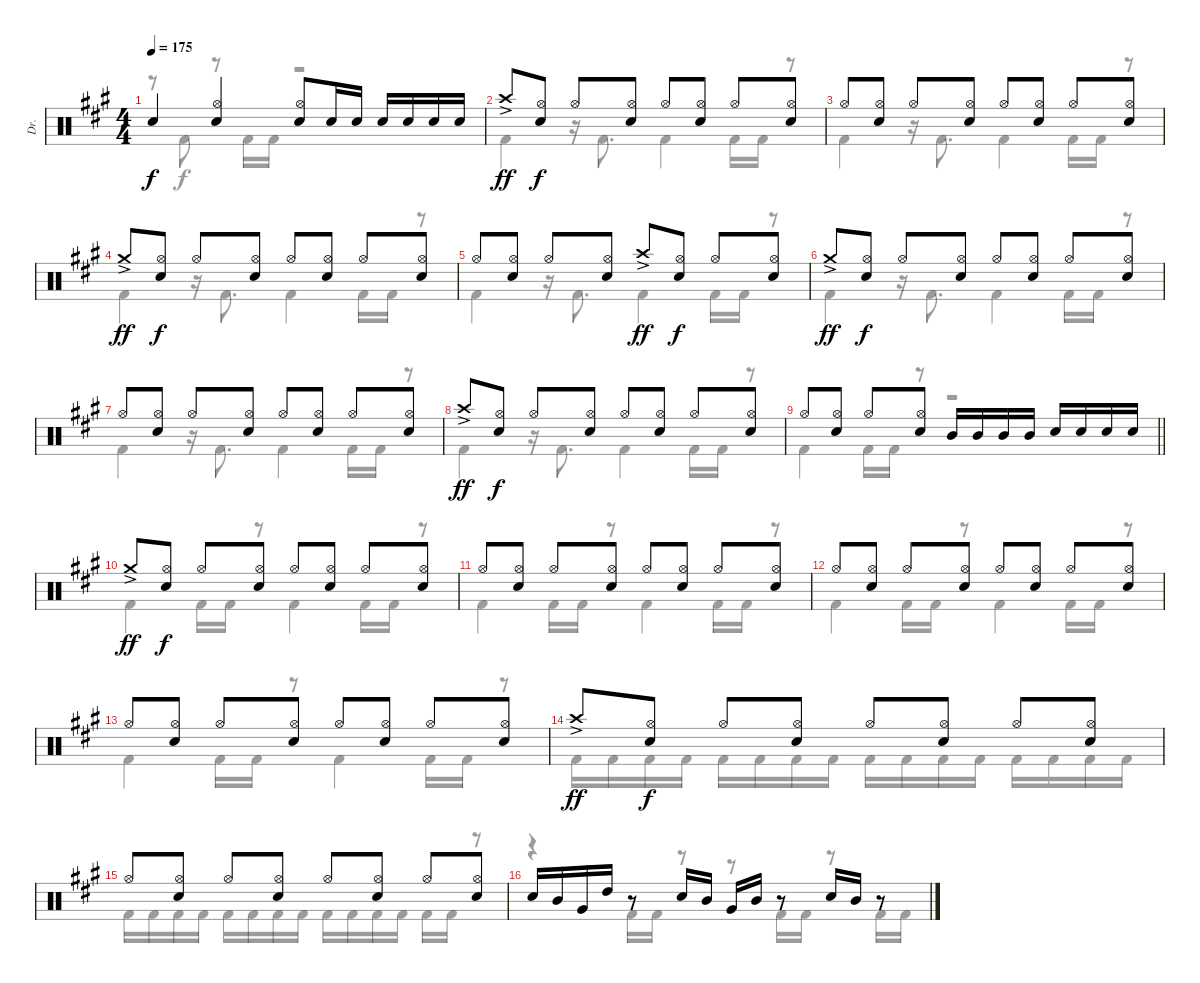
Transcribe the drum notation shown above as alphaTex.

\track ("Dr." "Dr.") {instrument percussion}
\staff {score}
\articulation defaults
\voice
\ts (4 4)
\tempo 175
\clef neutral
\ks f#minor "Snare (hit)"{t}.4{dy f}
("Hi-Hat (open)" "Electric Snare (hit)").4 ("Hi-Hat (open)" "Electric Snare (hit)").8 "Electric Snare (hit)".16 "Electric Snare (hit)".16 "Electric Snare (hit)".16 "Electric Snare (hit)".16 "Electric Snare (hit)".16 "Electric Snare (hit)".16 |
"Crash high (hit)"{ac}.8{dy ff} ("Hi-Hat (open)" "Electric Snare (hit)").8{dy f} "Hi-Hat (open)".8 ("Hi-Hat (open)" "Electric Snare (hit)").8 "Hi-Hat (open)".8 ("Hi-Hat (open)" "Electric Snare (hit)").8 "Hi-Hat (open)".8 ("Hi-Hat (open)" "Electric Snare (hit)").8 |
"Hi-Hat (open)".8 ("Hi-Hat (open)" "Electric Snare (hit)").8 "Hi-Hat (open)".8 ("Hi-Hat (open)" "Electric Snare (hit)").8 "Hi-Hat (open)".8 ("Hi-Hat (open)" "Electric Snare (hit)").8 "Hi-Hat (open)".8 ("Hi-Hat (open)" "Electric Snare (hit)").8 |
"Crash medium (hit)"{ac}.8{dy ff} ("Hi-Hat (open)" "Electric Snare (hit)").8{dy f} "Hi-Hat (open)".8 ("Hi-Hat (open)" "Electric Snare (hit)").8 "Hi-Hat (open)".8 ("Hi-Hat (open)" "Electric Snare (hit)").8 "Hi-Hat (open)".8 ("Hi-Hat (open)" "Electric Snare (hit)").8 |
"Hi-Hat (open)".8 ("Hi-Hat (open)" "Electric Snare (hit)").8 "Hi-Hat (open)".8 ("Hi-Hat (open)" "Electric Snare (hit)").8 "Crash high (hit)"{ac}.8{dy ff} ("Hi-Hat (open)" "Electric Snare (hit)").8{dy f} "Hi-Hat (open)".8 ("Hi-Hat (open)" "Electric Snare (hit)").8 |
"Crash medium (hit)"{ac}.8{dy ff} ("Hi-Hat (open)" "Electric Snare (hit)").8{dy f} "Hi-Hat (open)".8 ("Hi-Hat (open)" "Electric Snare (hit)").8 "Hi-Hat (open)".8 ("Hi-Hat (open)" "Electric Snare (hit)").8 "Hi-Hat (open)".8 ("Hi-Hat (open)" "Electric Snare (hit)").8 |
"Hi-Hat (open)".8 ("Hi-Hat (open)" "Electric Snare (hit)").8 "Hi-Hat (open)".8 ("Hi-Hat (open)" "Electric Snare (hit)").8 "Hi-Hat (open)".8 ("Hi-Hat (open)" "Electric Snare (hit)").8 "Hi-Hat (open)".8 ("Hi-Hat (open)" "Electric Snare (hit)").8 |
"Crash high (hit)"{ac}.8{dy ff} ("Hi-Hat (open)" "Electric Snare (hit)").8{dy f} "Hi-Hat (open)".8 ("Hi-Hat (open)" "Electric Snare (hit)").8 "Hi-Hat (open)".8 ("Hi-Hat (open)" "Electric Snare (hit)").8 "Hi-Hat (open)".8 ("Hi-Hat (open)" "Electric Snare (hit)").8 |
\barLineRight lightlight "Hi-Hat (open)".8
("Hi-Hat (open)" "Electric Snare (hit)").8 "Hi-Hat (open)".8 ("Hi-Hat (open)" "Electric Snare (hit)").8 "Mid Tom (hit)".16 "Mid Tom (hit)".16 "Mid Tom (hit)".16 "Mid Tom (hit)".16 "Electric Snare (hit)".16 "Electric Snare (hit)".16 "Electric Snare (hit)".16 "Electric Snare (hit)".16 |
"Crash medium (hit)"{ac}.8{dy ff} ("Hi-Hat (open)" "Electric Snare (hit)").8{dy f} "Hi-Hat (open)".8 ("Hi-Hat (open)" "Electric Snare (hit)").8 "Hi-Hat (open)".8 ("Hi-Hat (open)" "Electric Snare (hit)").8 "Hi-Hat (open)".8 ("Hi-Hat (open)" "Electric Snare (hit)").8 |
"Hi-Hat (open)".8 ("Hi-Hat (open)" "Electric Snare (hit)").8 "Hi-Hat (open)".8 ("Hi-Hat (open)" "Electric Snare (hit)").8 "Hi-Hat (open)".8 ("Hi-Hat (open)" "Electric Snare (hit)").8 "Hi-Hat (open)".8 ("Hi-Hat (open)" "Electric Snare (hit)").8 |
"Hi-Hat (open)".8 ("Hi-Hat (open)" "Electric Snare (hit)").8 "Hi-Hat (open)".8 ("Hi-Hat (open)" "Electric Snare (hit)").8 "Hi-Hat (open)".8 ("Hi-Hat (open)" "Electric Snare (hit)").8 "Hi-Hat (open)".8 ("Hi-Hat (open)" "Electric Snare (hit)").8 |
"Hi-Hat (open)".8 ("Hi-Hat (open)" "Electric Snare (hit)").8 "Hi-Hat (open)".8 ("Hi-Hat (open)" "Electric Snare (hit)").8 "Hi-Hat (open)".8 ("Hi-Hat (open)" "Electric Snare (hit)").8 "Hi-Hat (open)".8 ("Hi-Hat (open)" "Electric Snare (hit)").8 |
"Crash high (hit)"{ac}.8{dy ff} ("Hi-Hat (open)" "Electric Snare (hit)").8{dy f} "Hi-Hat (open)".8 ("Hi-Hat (open)" "Electric Snare (hit)").8 "Hi-Hat (open)".8 ("Hi-Hat (open)" "Electric Snare (hit)").8 "Hi-Hat (open)".8 ("Hi-Hat (open)" "Electric Snare (hit)").8 |
"Hi-Hat (open)".8 ("Hi-Hat (open)" "Electric Snare (hit)").8 "Hi-Hat (open)".8 ("Hi-Hat (open)" "Electric Snare (hit)").8 "Hi-Hat (open)".8 ("Hi-Hat (open)" "Electric Snare (hit)").8 "Hi-Hat (open)".8 ("Hi-Hat (open)" "Electric Snare (hit)").8 |
"Electric Snare (hit)".16 "Mid Tom (hit)".16 "Very Low Tom (hit)".16 "High Tom (hit)".16 r.8 "Electric Snare (hit)".16 "Mid Tom (hit)".16 "Very Low Tom (hit)".16 "Mid Tom (hit)".16 r.8 "Electric Snare (hit)".16 "Mid Tom (hit)".16 r.8
\voice
\clef neutral
\ottava regular
\simile none
\ks f#minor
r.8{dy f} "Kick (hit) 2".8 r.8 "Kick (hit) 2".16 "Kick (hit) 2".16 r.2 |
"Kick (hit) 2".4 r.16 "Kick (hit) 2".8{d} "Kick (hit) 2".4 "Kick (hit) 2".16 "Kick (hit) 2".16 r.8 |
"Kick (hit) 2".4 r.16 "Kick (hit) 2".8{d} "Kick (hit) 2".4 "Kick (hit) 2".16 "Kick (hit) 2".16 r.8 |
"Kick (hit) 2".4 r.16 "Kick (hit) 2".8{d} "Kick (hit) 2".4 "Kick (hit) 2".16 "Kick (hit) 2".16 r.8 |
"Kick (hit) 2".4 r.16 "Kick (hit) 2".8{d} "Kick (hit) 2".4 "Kick (hit) 2".16 "Kick (hit) 2".16 r.8 |
"Kick (hit) 2".4 r.16 "Kick (hit) 2".8{d} "Kick (hit) 2".4 "Kick (hit) 2".16 "Kick (hit) 2".16 r.8 |
"Kick (hit) 2".4 r.16 "Kick (hit) 2".8{d} "Kick (hit) 2".4 "Kick (hit) 2".16 "Kick (hit) 2".16 r.8 |
"Kick (hit) 2".4 r.16 "Kick (hit) 2".8{d} "Kick (hit) 2".4 "Kick (hit) 2".16 "Kick (hit) 2".16 r.8 |
\barLineRight lightlight "Kick (hit) 2".4 "Kick (hit) 2".16 "Kick (hit) 2".16
r.8 r.2 |
"Kick (hit) 2".4 "Kick (hit) 2".16 "Kick (hit) 2".16 r.8 "Kick (hit) 2".4 "Kick (hit) 2".16 "Kick (hit) 2".16 r.8 |
"Kick (hit) 2".4 "Kick (hit) 2".16 "Kick (hit) 2".16 r.8 "Kick (hit) 2".4 "Kick (hit) 2".16 "Kick (hit) 2".16 r.8 |
"Kick (hit) 2".4 "Kick (hit) 2".16 "Kick (hit) 2".16 r.8 "Kick (hit) 2".4 "Kick (hit) 2".16 "Kick (hit) 2".16 r.8 |
"Kick (hit) 2".4 "Kick (hit) 2".16 "Kick (hit) 2".16 r.8 "Kick (hit) 2".4 "Kick (hit) 2".16 "Kick (hit) 2".16 r.8 |
"Kick (hit) 2".16 "Kick (hit) 2".16 "Kick (hit) 2".16 "Kick (hit) 2".16 "Kick (hit) 2".16 "Kick (hit) 2".16 "Kick (hit) 2".16 "Kick (hit) 2".16 "Kick (hit) 2".16 "Kick (hit) 2".16 "Kick (hit) 2".16 "Kick (hit) 2".16 "Kick (hit) 2".16 "Kick (hit) 2".16 "Kick (hit) 2".16 "Kick (hit) 2".16 |
"Kick (hit) 2".16 "Kick (hit) 2".16 "Kick (hit) 2".16 "Kick (hit) 2".16 "Kick (hit) 2".16 "Kick (hit) 2".16 "Kick (hit) 2".16 "Kick (hit) 2".16 "Kick (hit) 2".16 "Kick (hit) 2".16 "Kick (hit) 2".16 "Kick (hit) 2".16 "Kick (hit) 2".16 "Kick (hit) 2".16 r.8 |
r.4 "Kick (hit) 2".16 "Kick (hit) 2".16 r.8 r.8 "Kick (hit) 2".16 "Kick (hit) 2".16 r.8 "Kick (hit) 2".16 "Kick (hit) 2".16
